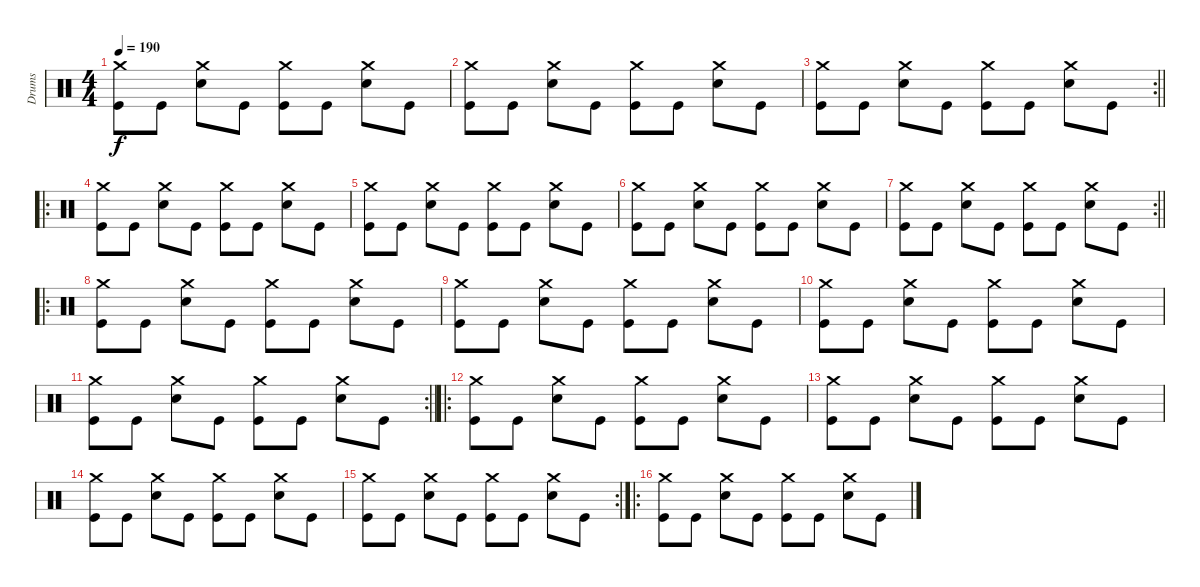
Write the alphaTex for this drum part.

\track ("Drums" "Drums") {instrument percussion}
\staff {score}
\articulation defaults
\ts (4 4)
\tempo 190
\clef neutral
\ks c
("Crash medium (hit)" "Kick (hit)").8{dy f} "Kick (hit)".8 ("Crash medium (hit)" "Snare (hit) 2").8 "Kick (hit)".8 ("Crash medium (hit)" "Kick (hit)").8 "Kick (hit)".8 ("Crash medium (hit)" "Snare (hit) 2").8 "Kick (hit)".8 |
("Crash medium (hit)" "Kick (hit)").8 "Kick (hit)".8 ("Crash medium (hit)" "Snare (hit) 2").8 "Kick (hit)".8 ("Crash medium (hit)" "Kick (hit)").8 "Kick (hit)".8 ("Crash medium (hit)" "Snare (hit) 2").8 "Kick (hit)".8 |
\rc 2
\barLineRight lightlight
("Crash medium (hit)" "Kick (hit)").8 "Kick (hit)".8 ("Crash medium (hit)" "Snare (hit) 2").8 "Kick (hit)".8 ("Crash medium (hit)" "Kick (hit)").8 "Kick (hit)".8 ("Crash medium (hit)" "Snare (hit) 2").8 "Kick (hit)".8 |
\ro
("Crash medium (hit)" "Kick (hit)").8 "Kick (hit)".8 ("Crash medium (hit)" "Snare (hit) 2").8 "Kick (hit)".8 ("Crash medium (hit)" "Kick (hit)").8 "Kick (hit)".8 ("Crash medium (hit)" "Snare (hit) 2").8 "Kick (hit)".8 |
("Crash medium (hit)" "Kick (hit)").8 "Kick (hit)".8 ("Crash medium (hit)" "Snare (hit) 2").8 "Kick (hit)".8 ("Crash medium (hit)" "Kick (hit)").8 "Kick (hit)".8 ("Crash medium (hit)" "Snare (hit) 2").8 "Kick (hit)".8 |
("Crash medium (hit)" "Kick (hit)").8 "Kick (hit)".8 ("Crash medium (hit)" "Snare (hit) 2").8 "Kick (hit)".8 ("Crash medium (hit)" "Kick (hit)").8 "Kick (hit)".8 ("Crash medium (hit)" "Snare (hit) 2").8 "Kick (hit)".8 |
\rc 2
\barLineRight lightlight
("Crash medium (hit)" "Kick (hit)").8 "Kick (hit)".8 ("Crash medium (hit)" "Snare (hit) 2").8 "Kick (hit)".8 ("Crash medium (hit)" "Kick (hit)").8 "Kick (hit)".8 ("Crash medium (hit)" "Snare (hit) 2").8 "Kick (hit)".8 |
\ro
("Crash medium (hit)" "Kick (hit)").8 "Kick (hit)".8 ("Crash medium (hit)" "Snare (hit) 2").8 "Kick (hit)".8 ("Crash medium (hit)" "Kick (hit)").8 "Kick (hit)".8 ("Crash medium (hit)" "Snare (hit) 2").8 "Kick (hit)".8 |
("Crash medium (hit)" "Kick (hit)").8 "Kick (hit)".8 ("Crash medium (hit)" "Snare (hit) 2").8 "Kick (hit)".8 ("Crash medium (hit)" "Kick (hit)").8 "Kick (hit)".8 ("Crash medium (hit)" "Snare (hit) 2").8 "Kick (hit)".8 |
("Crash medium (hit)" "Kick (hit)").8 "Kick (hit)".8 ("Crash medium (hit)" "Snare (hit) 2").8 "Kick (hit)".8 ("Crash medium (hit)" "Kick (hit)").8 "Kick (hit)".8 ("Crash medium (hit)" "Snare (hit) 2").8 "Kick (hit)".8 |
\rc 2
\barLineRight lightlight
("Crash medium (hit)" "Kick (hit)").8 "Kick (hit)".8 ("Crash medium (hit)" "Snare (hit) 2").8 "Kick (hit)".8 ("Crash medium (hit)" "Kick (hit)").8 "Kick (hit)".8 ("Crash medium (hit)" "Snare (hit) 2").8 "Kick (hit)".8 |
\ro
("Crash medium (hit)" "Kick (hit)").8 "Kick (hit)".8 ("Crash medium (hit)" "Snare (hit) 2").8 "Kick (hit)".8 ("Crash medium (hit)" "Kick (hit)").8 "Kick (hit)".8 ("Crash medium (hit)" "Snare (hit) 2").8 "Kick (hit)".8 |
("Crash medium (hit)" "Kick (hit)").8 "Kick (hit)".8 ("Crash medium (hit)" "Snare (hit) 2").8 "Kick (hit)".8 ("Crash medium (hit)" "Kick (hit)").8 "Kick (hit)".8 ("Crash medium (hit)" "Snare (hit) 2").8 "Kick (hit)".8 |
("Crash medium (hit)" "Kick (hit)").8 "Kick (hit)".8 ("Crash medium (hit)" "Snare (hit) 2").8 "Kick (hit)".8 ("Crash medium (hit)" "Kick (hit)").8 "Kick (hit)".8 ("Crash medium (hit)" "Snare (hit) 2").8 "Kick (hit)".8 |
\rc 2
("Crash medium (hit)" "Kick (hit)").8 "Kick (hit)".8 ("Crash medium (hit)" "Snare (hit) 2").8 "Kick (hit)".8 ("Crash medium (hit)" "Kick (hit)").8 "Kick (hit)".8 ("Crash medium (hit)" "Snare (hit) 2").8 "Kick (hit)".8 |
\ro
("Crash medium (hit)" "Kick (hit)").8 "Kick (hit)".8 ("Crash medium (hit)" "Snare (hit) 2").8 "Kick (hit)".8 ("Crash medium (hit)" "Kick (hit)").8 "Kick (hit)".8 ("Crash medium (hit)" "Snare (hit) 2").8 "Kick (hit)".8
